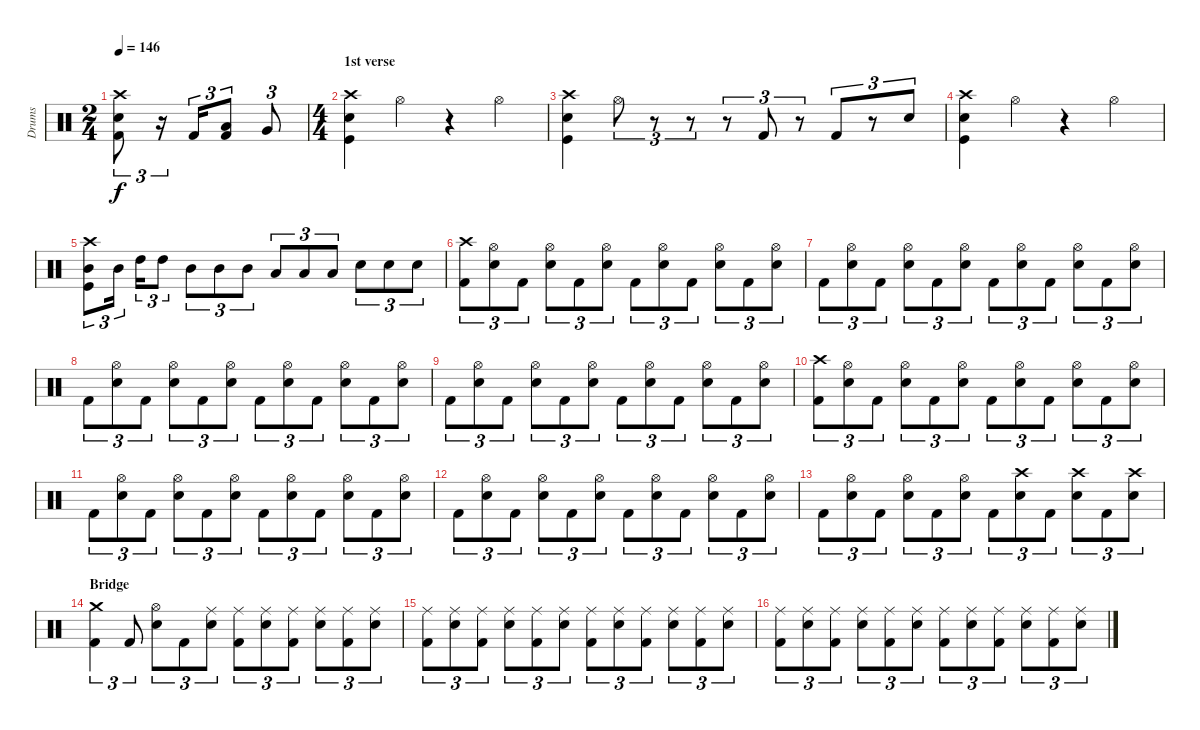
\track ("Drums" "Drums") {instrument percussion}
\staff {score}
\articulation defaults
\ts (2 4)
\tempo 146
\clef neutral
\ks c
("Crash high (hit)" "Electric Snare (hit)" "Kick (hit) 2").8{tu (3 2) dy f} r.16{tu (3 2)} "Kick (hit) 2".16{tu (3 2)} ("Low Floor Tom (hit)" "Kick (hit) 2").8{tu (3 2)} "Very Low Tom (hit)".8{tu (3 2)} |
\ts (4 4)
\section ("" "1st verse")
("Crash high (hit)" "Electric Snare (hit)" "Kick (hit)").4 "Hi-Hat (open)".4 r.4 "Hi-Hat (open)".4 |
("Crash high (hit)" "Electric Snare (hit)" "Kick (hit)").4 "Hi-Hat (open)".8{tu (3 2)} r.8{tu (3 2)} r.8{tu (3 2)} r.8{tu (3 2)} "Kick (hit) 2".8{tu (3 2)} r.8{tu (3 2)} "Kick (hit) 2".8{tu (3 2)} r.8{tu (3 2)} "Electric Snare (hit)".8{tu (3 2)} |
("Crash high (hit)" "Electric Snare (hit)" "Kick (hit)").4 "Hi-Hat (open)".4 r.4 "Hi-Hat (open)".4 |
("Crash high (hit)" "Mid Tom (hit)" "Kick (hit)").8{tu (3 2)} "Mid Tom (hit)".16{tu (3 2)} "High Tom (hit)".16{tu (3 2)} "High Tom (hit)".8{tu (3 2)} "Mid Tom (hit)".8{tu (3 2)} "Mid Tom (hit)".8{tu (3 2)} "Mid Tom (hit)".8{tu (3 2)} "Low Tom (hit)".8{tu (3 2)} "Low Tom (hit)".8{tu (3 2)} "Low Tom (hit)".8{tu (3 2)} "Electric Snare (hit)".8{tu (3 2)} "Electric Snare (hit)".8{tu (3 2)} "Electric Snare (hit)".8{tu (3 2)} |
("Crash high (hit)" "Kick (hit) 2").8{tu (3 2)} ("Hi-Hat (open)" "Electric Snare (hit)").8{tu (3 2)} "Kick (hit) 2".8{tu (3 2)} ("Hi-Hat (open)" "Electric Snare (hit)").8{tu (3 2)} "Kick (hit) 2".8{tu (3 2)} ("Hi-Hat (open)" "Electric Snare (hit)").8{tu (3 2)} "Kick (hit) 2".8{tu (3 2)} ("Hi-Hat (open)" "Electric Snare (hit)").8{tu (3 2)} "Kick (hit) 2".8{tu (3 2)} ("Hi-Hat (open)" "Electric Snare (hit)").8{tu (3 2)} "Kick (hit) 2".8{tu (3 2)} ("Hi-Hat (open)" "Electric Snare (hit)").8{tu (3 2)} |
"Kick (hit) 2".8{tu (3 2)} ("Hi-Hat (open)" "Electric Snare (hit)").8{tu (3 2)} "Kick (hit) 2".8{tu (3 2)} ("Hi-Hat (open)" "Electric Snare (hit)").8{tu (3 2)} "Kick (hit) 2".8{tu (3 2)} ("Hi-Hat (open)" "Electric Snare (hit)").8{tu (3 2)} "Kick (hit) 2".8{tu (3 2)} ("Hi-Hat (open)" "Electric Snare (hit)").8{tu (3 2)} "Kick (hit) 2".8{tu (3 2)} ("Hi-Hat (open)" "Electric Snare (hit)").8{tu (3 2)} "Kick (hit) 2".8{tu (3 2)} ("Hi-Hat (open)" "Electric Snare (hit)").8{tu (3 2)} |
"Kick (hit) 2".8{tu (3 2)} ("Hi-Hat (open)" "Electric Snare (hit)").8{tu (3 2)} "Kick (hit) 2".8{tu (3 2)} ("Hi-Hat (open)" "Electric Snare (hit)").8{tu (3 2)} "Kick (hit) 2".8{tu (3 2)} ("Hi-Hat (open)" "Electric Snare (hit)").8{tu (3 2)} "Kick (hit) 2".8{tu (3 2)} ("Hi-Hat (open)" "Electric Snare (hit)").8{tu (3 2)} "Kick (hit) 2".8{tu (3 2)} ("Hi-Hat (open)" "Electric Snare (hit)").8{tu (3 2)} "Kick (hit) 2".8{tu (3 2)} ("Hi-Hat (open)" "Electric Snare (hit)").8{tu (3 2)} |
"Kick (hit) 2".8{tu (3 2)} ("Hi-Hat (open)" "Electric Snare (hit)").8{tu (3 2)} "Kick (hit) 2".8{tu (3 2)} ("Hi-Hat (open)" "Electric Snare (hit)").8{tu (3 2)} "Kick (hit) 2".8{tu (3 2)} ("Hi-Hat (open)" "Electric Snare (hit)").8{tu (3 2)} "Kick (hit) 2".8{tu (3 2)} ("Hi-Hat (open)" "Electric Snare (hit)").8{tu (3 2)} "Kick (hit) 2".8{tu (3 2)} ("Hi-Hat (open)" "Electric Snare (hit)").8{tu (3 2)} "Kick (hit) 2".8{tu (3 2)} ("Hi-Hat (open)" "Electric Snare (hit)").8{tu (3 2)} |
("Crash high (hit)" "Kick (hit) 2").8{tu (3 2)} ("Hi-Hat (open)" "Electric Snare (hit)").8{tu (3 2)} "Kick (hit) 2".8{tu (3 2)} ("Hi-Hat (open)" "Electric Snare (hit)").8{tu (3 2)} "Kick (hit) 2".8{tu (3 2)} ("Hi-Hat (open)" "Electric Snare (hit)").8{tu (3 2)} "Kick (hit) 2".8{tu (3 2)} ("Hi-Hat (open)" "Electric Snare (hit)").8{tu (3 2)} "Kick (hit) 2".8{tu (3 2)} ("Hi-Hat (open)" "Electric Snare (hit)").8{tu (3 2)} "Kick (hit) 2".8{tu (3 2)} ("Hi-Hat (open)" "Electric Snare (hit)").8{tu (3 2)} |
"Kick (hit) 2".8{tu (3 2)} ("Hi-Hat (open)" "Electric Snare (hit)").8{tu (3 2)} "Kick (hit) 2".8{tu (3 2)} ("Hi-Hat (open)" "Electric Snare (hit)").8{tu (3 2)} "Kick (hit) 2".8{tu (3 2)} ("Hi-Hat (open)" "Electric Snare (hit)").8{tu (3 2)} "Kick (hit) 2".8{tu (3 2)} ("Hi-Hat (open)" "Electric Snare (hit)").8{tu (3 2)} "Kick (hit) 2".8{tu (3 2)} ("Hi-Hat (open)" "Electric Snare (hit)").8{tu (3 2)} "Kick (hit) 2".8{tu (3 2)} ("Hi-Hat (open)" "Electric Snare (hit)").8{tu (3 2)} |
"Kick (hit) 2".8{tu (3 2)} ("Hi-Hat (open)" "Electric Snare (hit)").8{tu (3 2)} "Kick (hit) 2".8{tu (3 2)} ("Hi-Hat (open)" "Electric Snare (hit)").8{tu (3 2)} "Kick (hit) 2".8{tu (3 2)} ("Hi-Hat (open)" "Electric Snare (hit)").8{tu (3 2)} "Kick (hit) 2".8{tu (3 2)} ("Hi-Hat (open)" "Electric Snare (hit)").8{tu (3 2)} "Kick (hit) 2".8{tu (3 2)} ("Hi-Hat (open)" "Electric Snare (hit)").8{tu (3 2)} "Kick (hit) 2".8{tu (3 2)} ("Hi-Hat (open)" "Electric Snare (hit)").8{tu (3 2)} |
"Kick (hit) 2".8{tu (3 2)} ("Hi-Hat (open)" "Electric Snare (hit)").8{tu (3 2)} "Kick (hit) 2".8{tu (3 2)} ("Hi-Hat (open)" "Electric Snare (hit)").8{tu (3 2)} "Kick (hit) 2".8{tu (3 2)} ("Hi-Hat (open)" "Electric Snare (hit)").8{tu (3 2)} "Kick (hit) 2".8{tu (3 2)} ("Crash high (hit)" "Electric Snare (hit)").8{tu (3 2)} "Kick (hit) 2".8{tu (3 2)} ("Crash high (hit)" "Electric Snare (hit)").8{tu (3 2)} "Kick (hit) 2".8{tu (3 2)} ("Crash high (hit)" "Electric Snare (hit)").8{tu (3 2)} |
\section ("" "Bridge")
("Crash medium (hit)" "Kick (hit) 2").4{tu (3 2)} "Kick (hit) 2".8{tu (3 2)} ("Hi-Hat (open)" "Electric Snare (hit)").8{tu (3 2)} "Kick (hit) 2".8{tu (3 2)} ("Ride (middle)" "Electric Snare (hit)").8{tu (3 2)} ("Ride (middle)" "Kick (hit) 2").8{tu (3 2)} ("Ride (middle)" "Electric Snare (hit)").8{tu (3 2)} ("Ride (middle)" "Kick (hit) 2").8{tu (3 2)} ("Ride (middle)" "Electric Snare (hit)").8{tu (3 2)} ("Ride (middle)" "Kick (hit) 2").8{tu (3 2)} ("Ride (middle)" "Electric Snare (hit)").8{tu (3 2)} |
("Ride (middle)" "Kick (hit) 2").8{tu (3 2)} ("Ride (middle)" "Electric Snare (hit)").8{tu (3 2)} ("Ride (middle)" "Kick (hit) 2").8{tu (3 2)} ("Ride (middle)" "Electric Snare (hit)").8{tu (3 2)} ("Ride (middle)" "Kick (hit) 2").8{tu (3 2)} ("Ride (middle)" "Electric Snare (hit)").8{tu (3 2)} ("Ride (middle)" "Kick (hit) 2").8{tu (3 2)} ("Ride (middle)" "Electric Snare (hit)").8{tu (3 2)} ("Ride (middle)" "Kick (hit) 2").8{tu (3 2)} ("Ride (middle)" "Electric Snare (hit)").8{tu (3 2)} ("Ride (middle)" "Kick (hit) 2").8{tu (3 2)} ("Ride (middle)" "Electric Snare (hit)").8{tu (3 2)} |
("Ride (middle)" "Kick (hit) 2").8{tu (3 2)} ("Ride (middle)" "Electric Snare (hit)").8{tu (3 2)} ("Ride (middle)" "Kick (hit) 2").8{tu (3 2)} ("Ride (middle)" "Electric Snare (hit)").8{tu (3 2)} ("Ride (middle)" "Kick (hit) 2").8{tu (3 2)} ("Ride (middle)" "Electric Snare (hit)").8{tu (3 2)} ("Ride (middle)" "Kick (hit) 2").8{tu (3 2)} ("Ride (middle)" "Electric Snare (hit)").8{tu (3 2)} ("Ride (middle)" "Kick (hit) 2").8{tu (3 2)} ("Ride (middle)" "Electric Snare (hit)").8{tu (3 2)} ("Ride (middle)" "Kick (hit) 2").8{tu (3 2)} ("Ride (middle)" "Electric Snare (hit)").8{tu (3 2)}
